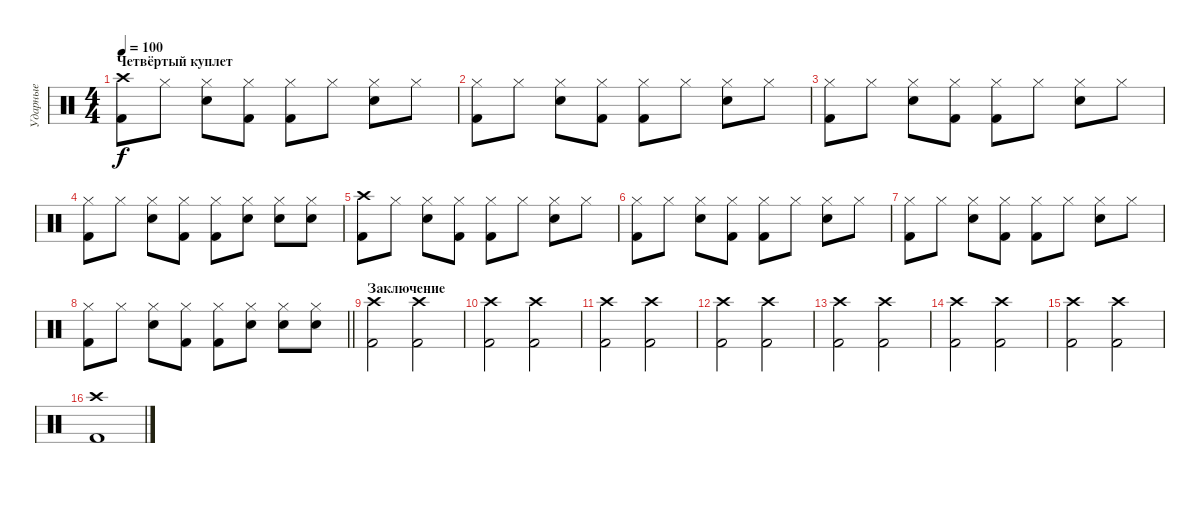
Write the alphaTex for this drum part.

\track ("Ударные" "Ударные") {instrument percussion}
\staff {score}
\articulation defaults
\ts (4 4)
\section ("" "Четвёртый куплет")
\tempo 100
\clef neutral
\ks c
("Crash high (hit)" "Kick (hit) 2").8{dy f} "Hi-Hat (closed)".8 ("Hi-Hat (closed)" "Snare (hit) 2").8 ("Hi-Hat (closed)" "Kick (hit) 2").8 ("Hi-Hat (closed)" "Kick (hit) 2").8 "Hi-Hat (closed)".8 ("Hi-Hat (closed)" "Snare (hit) 2").8 "Hi-Hat (closed)".8 |
("Hi-Hat (closed)" "Kick (hit) 2").8 "Hi-Hat (closed)".8 ("Hi-Hat (closed)" "Snare (hit) 2").8 ("Hi-Hat (closed)" "Kick (hit) 2").8 ("Hi-Hat (closed)" "Kick (hit) 2").8 "Hi-Hat (closed)".8 ("Hi-Hat (closed)" "Snare (hit) 2").8 "Hi-Hat (closed)".8 |
("Hi-Hat (closed)" "Kick (hit) 2").8 "Hi-Hat (closed)".8 ("Hi-Hat (closed)" "Snare (hit) 2").8 ("Hi-Hat (closed)" "Kick (hit) 2").8 ("Hi-Hat (closed)" "Kick (hit) 2").8 "Hi-Hat (closed)".8 ("Hi-Hat (closed)" "Snare (hit) 2").8 "Hi-Hat (closed)".8 |
("Hi-Hat (closed)" "Kick (hit) 2").8 "Hi-Hat (closed)".8 ("Hi-Hat (closed)" "Snare (hit) 2").8 ("Hi-Hat (closed)" "Kick (hit) 2").8 ("Hi-Hat (closed)" "Kick (hit) 2").8 ("Hi-Hat (closed)" "Snare (hit) 2").8 ("Hi-Hat (closed)" "Snare (hit) 2").8 ("Hi-Hat (closed)" "Snare (hit) 2").8 |
("Crash high (hit)" "Kick (hit) 2").8 "Hi-Hat (closed)".8 ("Hi-Hat (closed)" "Snare (hit) 2").8 ("Hi-Hat (closed)" "Kick (hit) 2").8 ("Hi-Hat (closed)" "Kick (hit) 2").8 "Hi-Hat (closed)".8 ("Hi-Hat (closed)" "Snare (hit) 2").8 "Hi-Hat (closed)".8 |
("Hi-Hat (closed)" "Kick (hit) 2").8 "Hi-Hat (closed)".8 ("Hi-Hat (closed)" "Snare (hit) 2").8 ("Hi-Hat (closed)" "Kick (hit) 2").8 ("Hi-Hat (closed)" "Kick (hit) 2").8 "Hi-Hat (closed)".8 ("Hi-Hat (closed)" "Snare (hit) 2").8 "Hi-Hat (closed)".8 |
("Hi-Hat (closed)" "Kick (hit) 2").8 "Hi-Hat (closed)".8 ("Hi-Hat (closed)" "Snare (hit) 2").8 ("Hi-Hat (closed)" "Kick (hit) 2").8 ("Hi-Hat (closed)" "Kick (hit) 2").8 "Hi-Hat (closed)".8 ("Hi-Hat (closed)" "Snare (hit) 2").8 "Hi-Hat (closed)".8 |
\barLineRight lightlight
("Hi-Hat (closed)" "Kick (hit) 2").8 "Hi-Hat (closed)".8 ("Hi-Hat (closed)" "Snare (hit) 2").8 ("Hi-Hat (closed)" "Kick (hit) 2").8 ("Hi-Hat (closed)" "Kick (hit) 2").8 ("Hi-Hat (closed)" "Snare (hit) 2").8 ("Hi-Hat (closed)" "Snare (hit) 2").8 ("Hi-Hat (closed)" "Snare (hit) 2").8 |
\section ("" "Заключение")
("Crash high (hit)" "Kick (hit) 2").2 ("Crash high (hit)" "Kick (hit) 2").2 |
("Crash high (hit)" "Kick (hit) 2").2 ("Crash high (hit)" "Kick (hit) 2").2 |
("Crash high (hit)" "Kick (hit) 2").2 ("Crash high (hit)" "Kick (hit) 2").2 |
("Crash high (hit)" "Kick (hit) 2").2 ("Crash high (hit)" "Kick (hit) 2").2 |
("Crash high (hit)" "Kick (hit) 2").2 ("Crash high (hit)" "Kick (hit) 2").2 |
("Crash high (hit)" "Kick (hit) 2").2 ("Crash high (hit)" "Kick (hit) 2").2 |
("Crash high (hit)" "Kick (hit) 2").2 ("Crash high (hit)" "Kick (hit) 2").2 |
("Crash high (hit)" "Kick (hit) 2").1
